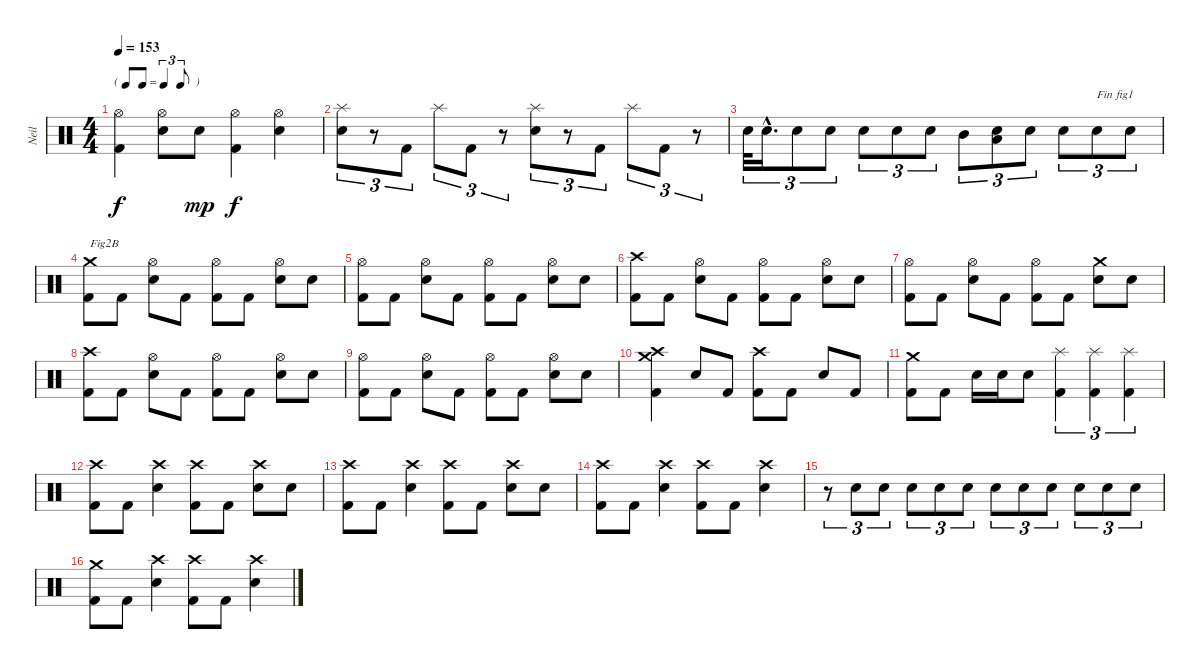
\track ("Neil" "Neil") {instrument percussion}
\staff {score}
\articulation defaults
\ts (4 4)
\tf triplet8th
\tempo 153
\clef neutral
\ks c
("Kick (hit) 2" "Hi-Hat (open)").4{dy f} ("Electric Snare (hit)" "Hi-Hat (open)").8 "Electric Snare (hit)".8{dy mp} ("Kick (hit) 2" "Hi-Hat (open)").4{dy f} ("Electric Snare (hit)" "Hi-Hat (open)").4 |
("Electric Snare (hit)" "Splash (hit)").8{tu (3 2)} r.8{tu (3 2)} "Kick (hit) 2".8{tu (3 2)} "Splash (hit)".8{tu (3 2)} "Kick (hit) 2".8{tu (3 2)} r.8{tu (3 2)} ("Electric Snare (hit)" "Splash (hit)").8{tu (3 2)} r.8{tu (3 2)} "Kick (hit) 2".8{tu (3 2)} "Splash (hit)".8{tu (3 2)} "Kick (hit) 2".8{tu (3 2)} r.8{tu (3 2)} |
"Electric Snare (hit)".32{tu (3 2)} "Electric Snare (hit)"{hac}.16{d tu (3 2)} "Electric Snare (hit)".8{tu (3 2)} "Electric Snare (hit)".8{tu (3 2)} "Electric Snare (hit)".8{tu (3 2)} "Electric Snare (hit)".8{tu (3 2)} "Electric Snare (hit)".8{tu (3 2)} "Mid Tom (hit)".8{tu (3 2)} ("Electric Snare (hit)" "Low Tom (hit)").8{tu (3 2)} "Electric Snare (hit)".8{tu (3 2)} "Electric Snare (hit)".8{tu (3 2)} "Electric Snare (hit)".8{tu (3 2) txt "Fin fig1"} "Electric Snare (hit)".8{tu (3 2)} |
("Kick (hit) 2" "Crash medium (hit)").8{txt "Fig2B"} "Kick (hit) 2".8 ("Electric Snare (hit)" "Hi-Hat (open)").8 "Kick (hit) 2".8 ("Kick (hit) 2" "Hi-Hat (open)").8 "Kick (hit) 2".8 ("Electric Snare (hit)" "Hi-Hat (open)").8 "Electric Snare (hit)".8 |
("Kick (hit) 2" "Hi-Hat (open)").8 "Kick (hit) 2".8 ("Electric Snare (hit)" "Hi-Hat (open)").8 "Kick (hit) 2".8 ("Kick (hit) 2" "Hi-Hat (open)").8 "Kick (hit) 2".8 ("Electric Snare (hit)" "Hi-Hat (open)").8 "Electric Snare (hit)".8 |
("Kick (hit) 2" "Crash high (hit)").8 "Kick (hit) 2".8 ("Electric Snare (hit)" "Hi-Hat (open)").8 "Kick (hit) 2".8 ("Kick (hit) 2" "Hi-Hat (open)").8 "Kick (hit) 2".8 ("Electric Snare (hit)" "Hi-Hat (open)").8 "Electric Snare (hit)".8 |
("Kick (hit) 2" "Hi-Hat (open)").8 "Kick (hit) 2".8 ("Electric Snare (hit)" "Hi-Hat (open)").8 "Kick (hit) 2".8 ("Kick (hit) 2" "Hi-Hat (open)").8 "Kick (hit) 2".8 ("Electric Snare (hit)" "Crash medium (hit)").8 "Electric Snare (hit)".8 |
("Kick (hit) 2" "Crash high (hit)").8 "Kick (hit) 2".8 ("Electric Snare (hit)" "Hi-Hat (open)").8 "Kick (hit) 2".8 ("Kick (hit) 2" "Hi-Hat (open)").8 "Kick (hit) 2".8 ("Electric Snare (hit)" "Hi-Hat (open)").8 "Electric Snare (hit)".8 |
("Kick (hit) 2" "Hi-Hat (open)").8 "Kick (hit) 2".8 ("Electric Snare (hit)" "Hi-Hat (open)").8 "Kick (hit) 2".8 ("Kick (hit) 2" "Hi-Hat (open)").8 "Kick (hit) 2".8 ("Electric Snare (hit)" "Hi-Hat (open)").8 "Electric Snare (hit)".8 |
("Kick (hit) 2" "Crash medium (hit)" "Crash high (hit)").4 "Electric Snare (hit)".8 "Kick (hit) 2".8 ("Kick (hit) 2" "Crash high (hit)").8 "Kick (hit) 2".8 "Electric Snare (hit)".8 "Kick (hit) 2".8 |
("Kick (hit) 2" "Crash medium (hit)").8 "Kick (hit) 2".8 "Electric Snare (hit)".16 "Electric Snare (hit)".16 "Electric Snare (hit)".8 ("Kick (hit) 2" "Splash (hit)").4{tu (3 2)} ("Kick (hit) 2" "Splash (hit)").4{tu (3 2)} ("Kick (hit) 2" "Splash (hit)").4{tu (3 2)} |
("Kick (hit) 2" "Crash high (hit)").8 "Kick (hit) 2".8 ("Electric Snare (hit)" "Crash high (hit)").4 ("Kick (hit) 2" "Crash high (hit)").8 "Kick (hit) 2".8 ("Electric Snare (hit)" "Crash high (hit)").8 "Electric Snare (hit)".8 |
("Kick (hit) 2" "Crash high (hit)").8 "Kick (hit) 2".8 ("Electric Snare (hit)" "Crash high (hit)").4 ("Kick (hit) 2" "Crash high (hit)").8 "Kick (hit) 2".8 ("Electric Snare (hit)" "Crash high (hit)").8 "Electric Snare (hit)".8 |
("Kick (hit) 2" "Crash high (hit)").8 "Kick (hit) 2".8 ("Electric Snare (hit)" "Crash high (hit)").4 ("Kick (hit) 2" "Crash high (hit)").8 "Kick (hit) 2".8 ("Electric Snare (hit)" "Crash high (hit)").4 |
r.8{tu (3 2)} "Electric Snare (hit)".8{tu (3 2)} "Electric Snare (hit)".8{tu (3 2)} "Electric Snare (hit)".8{tu (3 2)} "Electric Snare (hit)".8{tu (3 2)} "Electric Snare (hit)".8{tu (3 2)} "Electric Snare (hit)".8{tu (3 2)} "Electric Snare (hit)".8{tu (3 2)} "Electric Snare (hit)".8{tu (3 2)} "Electric Snare (hit)".8{tu (3 2)} "Electric Snare (hit)".8{tu (3 2)} "Electric Snare (hit)".8{tu (3 2)} |
("Kick (hit) 2" "Crash medium (hit)").8 "Kick (hit) 2".8 ("Electric Snare (hit)" "Crash high (hit)").4 ("Kick (hit) 2" "Crash high (hit)").8 "Kick (hit) 2".8 ("Electric Snare (hit)" "Crash high (hit)").4
